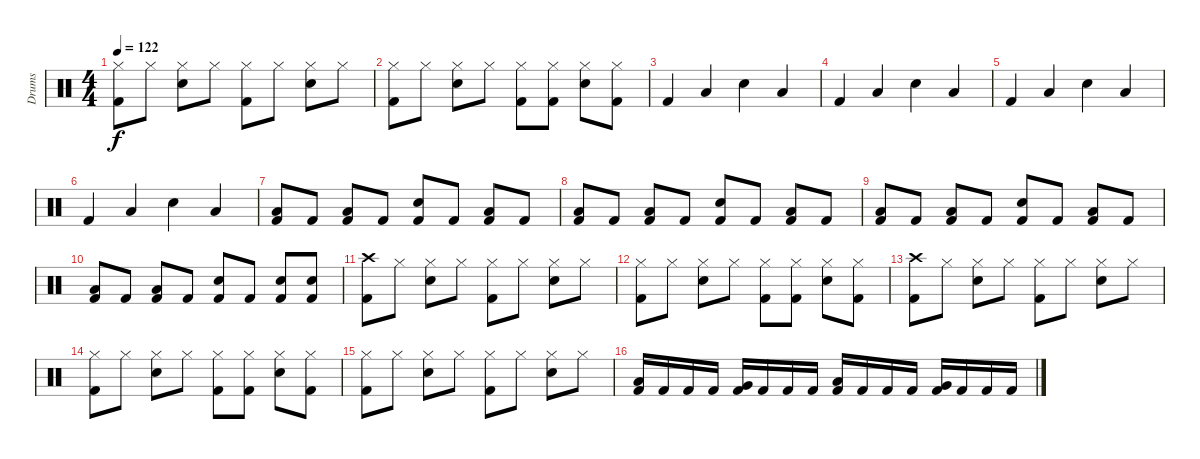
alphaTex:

\track ("Drums" "Drums") {instrument percussion}
\staff {score}
\articulation defaults
\ts (4 4)
\tempo 122
\clef neutral
\ks c
("Hi-Hat (closed)" "Kick (hit) 2").8{dy f} "Hi-Hat (closed)".8 ("Hi-Hat (closed)" "Electric Snare (hit)").8 "Hi-Hat (closed)".8 ("Hi-Hat (closed)" "Kick (hit) 2").8 "Hi-Hat (closed)".8 ("Hi-Hat (closed)" "Electric Snare (hit)").8 "Hi-Hat (closed)".8 |
("Hi-Hat (closed)" "Kick (hit) 2").8 "Hi-Hat (closed)".8 ("Hi-Hat (closed)" "Electric Snare (hit)").8 "Hi-Hat (closed)".8 ("Hi-Hat (closed)" "Kick (hit) 2").8 ("Hi-Hat (closed)" "Kick (hit) 2").8 ("Hi-Hat (closed)" "Electric Snare (hit)").8 ("Hi-Hat (closed)" "Kick (hit) 2").8 |
"Kick (hit) 2".4 "Low Floor Tom (hit)".4 "Electric Snare (hit)".4 "Low Floor Tom (hit)".4 |
"Kick (hit) 2".4 "Low Floor Tom (hit)".4 "Electric Snare (hit)".4 "Low Floor Tom (hit)".4 |
"Kick (hit) 2".4 "Low Floor Tom (hit)".4 "Electric Snare (hit)".4 "Low Floor Tom (hit)".4 |
"Kick (hit) 2".4 "Low Floor Tom (hit)".4 "Electric Snare (hit)".4 "Low Floor Tom (hit)".4 |
("Low Floor Tom (hit)" "Kick (hit) 2").8 "Kick (hit) 2".8 ("Low Floor Tom (hit)" "Kick (hit) 2").8 "Kick (hit) 2".8 ("Electric Snare (hit)" "Kick (hit) 2").8 "Kick (hit) 2".8 ("Low Floor Tom (hit)" "Kick (hit) 2").8 "Kick (hit) 2".8 |
("Low Floor Tom (hit)" "Kick (hit) 2").8 "Kick (hit) 2".8 ("Low Floor Tom (hit)" "Kick (hit) 2").8 "Kick (hit) 2".8 ("Electric Snare (hit)" "Kick (hit) 2").8 "Kick (hit) 2".8 ("Low Floor Tom (hit)" "Kick (hit) 2").8 "Kick (hit) 2".8 |
("Low Floor Tom (hit)" "Kick (hit) 2").8 "Kick (hit) 2".8 ("Low Floor Tom (hit)" "Kick (hit) 2").8 "Kick (hit) 2".8 ("Electric Snare (hit)" "Kick (hit) 2").8 "Kick (hit) 2".8 ("Low Floor Tom (hit)" "Kick (hit) 2").8 "Kick (hit) 2".8 |
("Low Floor Tom (hit)" "Kick (hit) 2").8 "Kick (hit) 2".8 ("Low Floor Tom (hit)" "Kick (hit) 2").8 "Kick (hit) 2".8 ("Electric Snare (hit)" "Kick (hit) 2").8 "Kick (hit) 2".8 ("Electric Snare (hit)" "Kick (hit) 2").8 ("Electric Snare (hit)" "Kick (hit) 2").8 |
("Crash high (hit)" "Kick (hit) 2").8 "Hi-Hat (closed)".8 ("Hi-Hat (closed)" "Electric Snare (hit)").8 "Hi-Hat (closed)".8 ("Hi-Hat (closed)" "Kick (hit) 2").8 "Hi-Hat (closed)".8 ("Hi-Hat (closed)" "Electric Snare (hit)").8 "Hi-Hat (closed)".8 |
("Hi-Hat (closed)" "Kick (hit) 2").8 "Hi-Hat (closed)".8 ("Hi-Hat (closed)" "Electric Snare (hit)").8 "Hi-Hat (closed)".8 ("Hi-Hat (closed)" "Kick (hit) 2").8 ("Hi-Hat (closed)" "Kick (hit) 2").8 ("Hi-Hat (closed)" "Electric Snare (hit)").8 ("Hi-Hat (closed)" "Kick (hit) 2").8 |
("Crash high (hit)" "Kick (hit) 2").8 "Hi-Hat (closed)".8 ("Hi-Hat (closed)" "Electric Snare (hit)").8 "Hi-Hat (closed)".8 ("Hi-Hat (closed)" "Kick (hit) 2").8 "Hi-Hat (closed)".8 ("Hi-Hat (closed)" "Electric Snare (hit)").8 "Hi-Hat (closed)".8 |
("Hi-Hat (closed)" "Kick (hit) 2").8 "Hi-Hat (closed)".8 ("Hi-Hat (closed)" "Electric Snare (hit)").8 "Hi-Hat (closed)".8 ("Hi-Hat (closed)" "Kick (hit) 2").8 ("Hi-Hat (closed)" "Kick (hit) 2").8 ("Hi-Hat (closed)" "Electric Snare (hit)").8 ("Hi-Hat (closed)" "Kick (hit) 2").8 |
("Hi-Hat (closed)" "Kick (hit) 2").8 "Hi-Hat (closed)".8 ("Hi-Hat (closed)" "Electric Snare (hit)").8 "Hi-Hat (closed)".8 ("Hi-Hat (closed)" "Kick (hit) 2").8 "Hi-Hat (closed)".8 ("Hi-Hat (closed)" "Electric Snare (hit)").8 "Hi-Hat (closed)".8 |
("Low Floor Tom (hit)" "Kick (hit) 2").16 "Kick (hit) 2".16 "Kick (hit) 2".16 "Kick (hit) 2".16 ("Very Low Tom (hit)" "Kick (hit) 2").16 "Kick (hit) 2".16 "Kick (hit) 2".16 "Kick (hit) 2".16 ("Low Floor Tom (hit)" "Kick (hit) 2").16 "Kick (hit) 2".16 "Kick (hit) 2".16 "Kick (hit) 2".16 ("Very Low Tom (hit)" "Kick (hit) 2").16 "Kick (hit) 2".16 "Kick (hit) 2".16 "Kick (hit) 2".16
